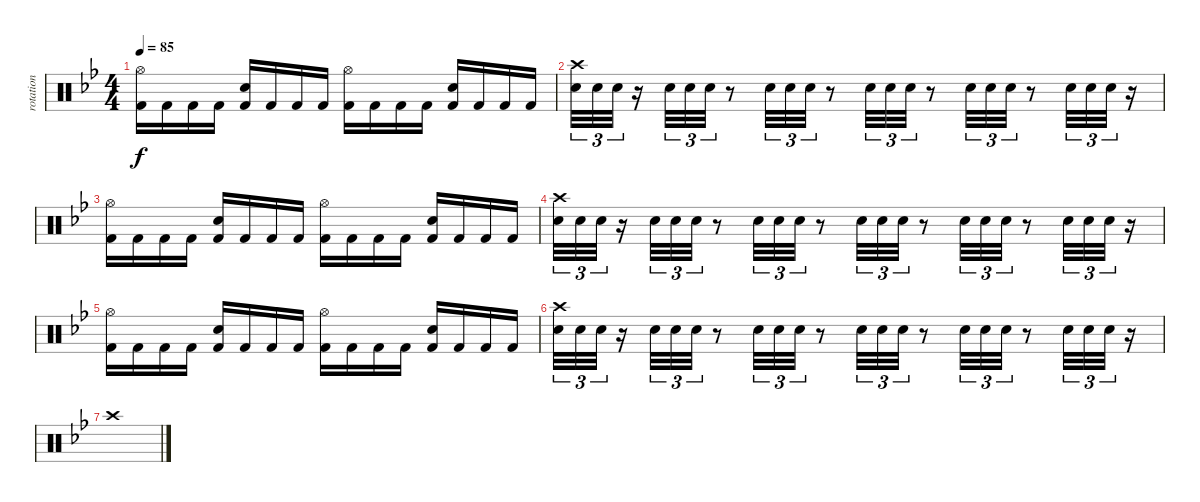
\track ("rotation" "rotation") {instrument percussion}
\staff {score}
\articulation defaults
\ts (4 4)
\tempo 85
\clef neutral
\ks gminor
("Hi-Hat (open)" "Kick (hit) 2").16{dy f} "Kick (hit) 2".16 "Kick (hit) 2".16 "Kick (hit) 2".16 ("Snare (hit) 2" "Kick (hit) 2").16 "Kick (hit) 2".16 "Kick (hit) 2".16 "Kick (hit) 2".16 ("Hi-Hat (open)" "Kick (hit) 2").16 "Kick (hit) 2".16 "Kick (hit) 2".16 "Kick (hit) 2".16 ("Snare (hit) 2" "Kick (hit) 2").16 "Kick (hit) 2".16 "Kick (hit) 2".16 "Kick (hit) 2".16 |
("Crash high (hit)" "Snare (hit) 2").32{tu (3 2)} "Snare (hit) 2".32{tu (3 2)} "Snare (hit) 2".32{tu (3 2)} r.16 "Snare (hit) 2".32{tu (3 2)} "Snare (hit) 2".32{tu (3 2)} "Snare (hit) 2".32{tu (3 2)} r.8 "Snare (hit) 2".32{tu (3 2)} "Snare (hit) 2".32{tu (3 2)} "Snare (hit) 2".32{tu (3 2)} r.8 "Snare (hit) 2".32{tu (3 2)} "Snare (hit) 2".32{tu (3 2)} "Snare (hit) 2".32{tu (3 2)} r.8 "Snare (hit) 2".32{tu (3 2)} "Snare (hit) 2".32{tu (3 2)} "Snare (hit) 2".32{tu (3 2)} r.8 "Snare (hit) 2".32{tu (3 2)} "Snare (hit) 2".32{tu (3 2)} "Snare (hit) 2".32{tu (3 2)} r.16 |
("Hi-Hat (open)" "Kick (hit) 2").16 "Kick (hit) 2".16 "Kick (hit) 2".16 "Kick (hit) 2".16 ("Snare (hit) 2" "Kick (hit) 2").16 "Kick (hit) 2".16 "Kick (hit) 2".16 "Kick (hit) 2".16 ("Hi-Hat (open)" "Kick (hit) 2").16 "Kick (hit) 2".16 "Kick (hit) 2".16 "Kick (hit) 2".16 ("Snare (hit) 2" "Kick (hit) 2").16 "Kick (hit) 2".16 "Kick (hit) 2".16 "Kick (hit) 2".16 |
("Crash high (hit)" "Snare (hit) 2").32{tu (3 2)} "Snare (hit) 2".32{tu (3 2)} "Snare (hit) 2".32{tu (3 2)} r.16 "Snare (hit) 2".32{tu (3 2)} "Snare (hit) 2".32{tu (3 2)} "Snare (hit) 2".32{tu (3 2)} r.8 "Snare (hit) 2".32{tu (3 2)} "Snare (hit) 2".32{tu (3 2)} "Snare (hit) 2".32{tu (3 2)} r.8 "Snare (hit) 2".32{tu (3 2)} "Snare (hit) 2".32{tu (3 2)} "Snare (hit) 2".32{tu (3 2)} r.8 "Snare (hit) 2".32{tu (3 2)} "Snare (hit) 2".32{tu (3 2)} "Snare (hit) 2".32{tu (3 2)} r.8 "Snare (hit) 2".32{tu (3 2)} "Snare (hit) 2".32{tu (3 2)} "Snare (hit) 2".32{tu (3 2)} r.16 |
("Hi-Hat (open)" "Kick (hit) 2").16 "Kick (hit) 2".16 "Kick (hit) 2".16 "Kick (hit) 2".16 ("Snare (hit) 2" "Kick (hit) 2").16 "Kick (hit) 2".16 "Kick (hit) 2".16 "Kick (hit) 2".16 ("Hi-Hat (open)" "Kick (hit) 2").16 "Kick (hit) 2".16 "Kick (hit) 2".16 "Kick (hit) 2".16 ("Snare (hit) 2" "Kick (hit) 2").16 "Kick (hit) 2".16 "Kick (hit) 2".16 "Kick (hit) 2".16 |
("Crash high (hit)" "Snare (hit) 2").32{tu (3 2)} "Snare (hit) 2".32{tu (3 2)} "Snare (hit) 2".32{tu (3 2)} r.16 "Snare (hit) 2".32{tu (3 2)} "Snare (hit) 2".32{tu (3 2)} "Snare (hit) 2".32{tu (3 2)} r.8 "Snare (hit) 2".32{tu (3 2)} "Snare (hit) 2".32{tu (3 2)} "Snare (hit) 2".32{tu (3 2)} r.8 "Snare (hit) 2".32{tu (3 2)} "Snare (hit) 2".32{tu (3 2)} "Snare (hit) 2".32{tu (3 2)} r.8 "Snare (hit) 2".32{tu (3 2)} "Snare (hit) 2".32{tu (3 2)} "Snare (hit) 2".32{tu (3 2)} r.8 "Snare (hit) 2".32{tu (3 2)} "Snare (hit) 2".32{tu (3 2)} "Snare (hit) 2".32{tu (3 2)} r.16 |
"Crash high (hit)".1
